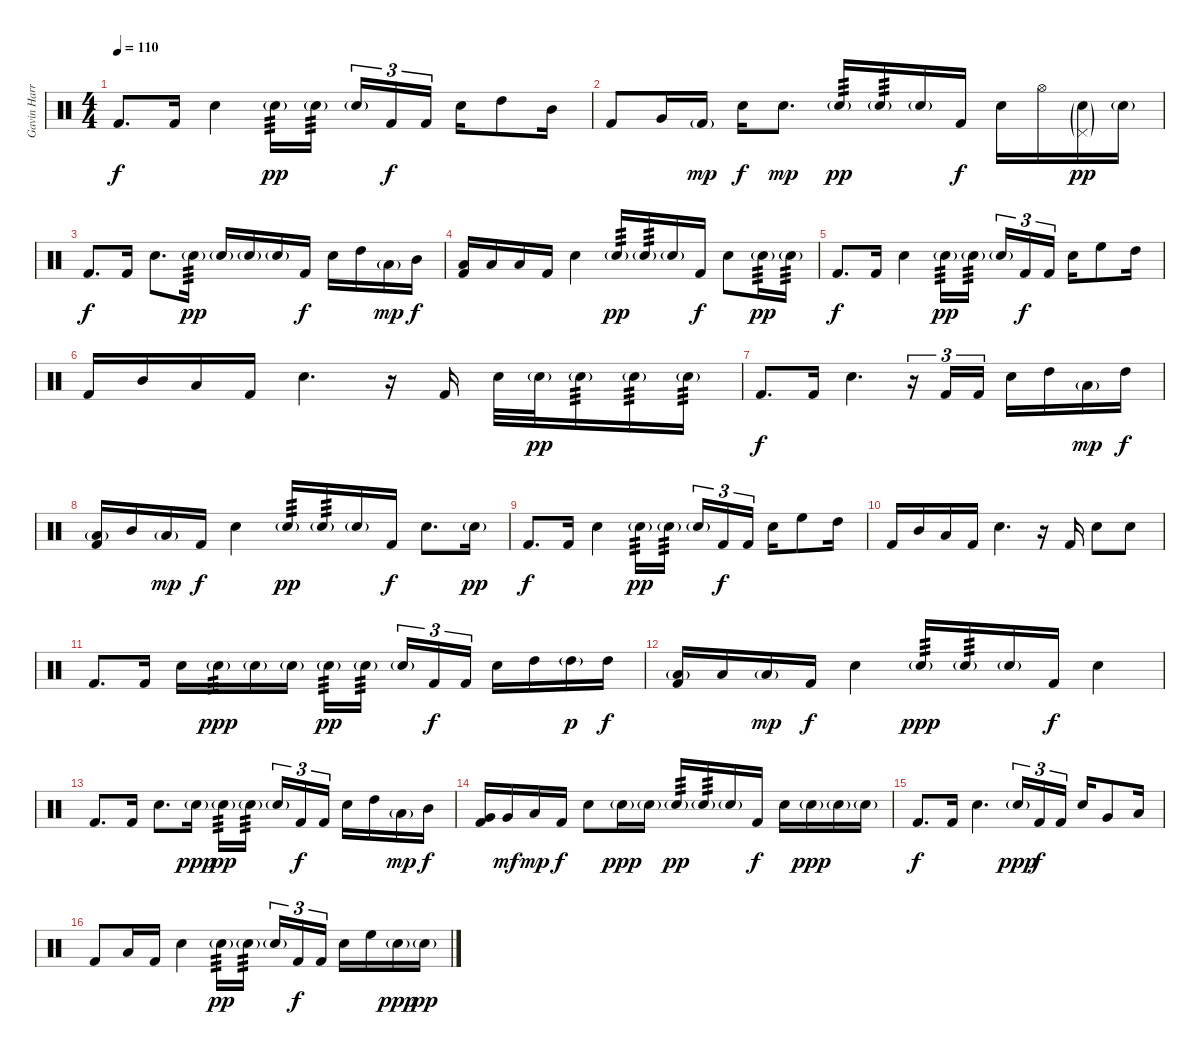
\track ("Gavin Harrison - Drums" "Gavin Harr") {instrument percussion}
\staff {score}
\articulation defaults
\ts (4 4)
\tempo 110
\clef neutral
\ks c "Kick (hit) 2".8{d dy f} "Kick (hit) 2".16 "Electric Snare (hit)".4 "Electric Snare (hit)"{g}.16{tp 3 dy pp} "Electric Snare (hit)"{g}.16{tp 3} "Electric Snare (hit)"{g}.16{tu (3 2)} "Kick (hit) 2".16{tu (3 2) dy f} "Kick (hit) 2".16{tu (3 2)} "Electric Snare (hit)".16 "High Tom (hit)".8 "Mid Tom (hit)".16
|
"Kick (hit) 2".8 "Very Low Tom (hit)".16 "Kick (hit) 2"{g}.16{dy mp} "Electric Snare (hit)".16{dy f} "Electric Snare (hit)".8{d dy mp} "Electric Snare (hit)"{g}.16{tp 3 dy pp} "Electric Snare (hit)"{g}.16{tp 3} "Electric Snare (hit)"{g}.16 "Kick (hit) 2".16{dy f} "Electric Snare (hit)".16 "Hi-Hat (open)".16 ("Pedal Hi-Hat (hit)"{g} "Electric Snare (hit)"{g}).16{dy pp} "Electric Snare (hit)"{g}.16 |
"Kick (hit) 2".8{d dy f} "Kick (hit) 2".16 "Electric Snare (hit)".8{d} "Electric Snare (hit)"{g}.16{tp 3 dy pp} "Electric Snare (hit)"{g}.16 "Electric Snare (hit)"{g}.16 "Electric Snare (hit)"{g}.16 "Kick (hit) 2".16{dy f} "Electric Snare (hit)".16 "High Tom (hit)".16 "Low Floor Tom (hit)"{g}.16{dy mp} "Mid Tom (hit)".16{dy f} |
("Low Floor Tom (hit)" "Kick (hit) 2").16 "Low Tom (hit)".16 "Low Floor Tom (hit)".16 "Kick (hit) 2".16 "Electric Snare (hit)".4 "Electric Snare (hit)"{g}.16{tp 3 dy pp} "Electric Snare (hit)"{g}.16{tp 3} "Electric Snare (hit)"{g}.16 "Kick (hit) 2".16{dy f} "Electric Snare (hit)".8 "Electric Snare (hit)"{g}.16{tp 3 dy pp} "Electric Snare (hit)"{g}.16{tp 3} |
"Kick (hit) 2".8{d dy f} "Kick (hit) 2".16 "Electric Snare (hit)".4 "Electric Snare (hit)"{g}.16{tp 3 dy pp} "Electric Snare (hit)"{g}.16{tp 3} "Electric Snare (hit)"{g}.16{tu (3 2)} "Kick (hit) 2".16{tu (3 2) dy f} "Kick (hit) 2".16{tu (3 2)} "Electric Snare (hit)".16 "High Floor Tom (hit)".8 "High Tom (hit)".16 |
"Kick (hit) 2".16 "Mid Tom (hit)".16 "Low Floor Tom (hit)".16 "Kick (hit) 2".16 "Electric Snare (hit)".4{d} r.16 "Kick (hit) 2".16 "Electric Snare (hit)".32 "Electric Snare (hit)"{g}.32{dy pp} "Electric Snare (hit)"{g}.16{tp 3} "Electric Snare (hit)"{g}.16{tp 3} "Electric Snare (hit)"{g}.16{tp 3} |
"Kick (hit) 2".8{d dy f} "Kick (hit) 2".16 "Electric Snare (hit)".4{d} r.16{tu (3 2)} "Kick (hit) 2".16{tu (3 2)} "Kick (hit) 2".16{tu (3 2)} "Electric Snare (hit)".16 "High Tom (hit)".16 "Low Floor Tom (hit)"{g}.16{dy mp} "High Tom (hit)".16{dy f} |
("Low Floor Tom (hit)"{g} "Kick (hit) 2").16 "Mid Tom (hit)".16 "Low Floor Tom (hit)"{g}.16{dy mp} "Kick (hit) 2".16{dy f} "Electric Snare (hit)".4 "Electric Snare (hit)"{g}.16{tp 3 dy pp} "Electric Snare (hit)"{g}.16{tp 3} "Electric Snare (hit)"{g}.16 "Kick (hit) 2".16{dy f} "Electric Snare (hit)".8{d} "Electric Snare (hit)"{g}.16{dy pp} |
"Kick (hit) 2".8{d dy f} "Kick (hit) 2".16 "Electric Snare (hit)".4 "Electric Snare (hit)"{g}.16{tp 3 dy pp} "Electric Snare (hit)"{g}.16{tp 3} "Electric Snare (hit)"{g}.16{tu (3 2)} "Kick (hit) 2".16{tu (3 2) dy f} "Kick (hit) 2".16{tu (3 2)} "Electric Snare (hit)".16 "High Floor Tom (hit)".8 "High Tom (hit)".16 |
"Kick (hit) 2".16 "Mid Tom (hit)".16 "Low Floor Tom (hit)".16 "Kick (hit) 2".16 "Electric Snare (hit)".4{d} r.16 "Kick (hit) 2".16 "Electric Snare (hit)".8 "Electric Snare (hit)".8 |
"Kick (hit) 2".8{d} "Kick (hit) 2".16 "Electric Snare (hit)".16 "Electric Snare (hit)"{g}.16{tp 3 dy ppp} "Electric Snare (hit)"{g}.16 "Electric Snare (hit)"{g}.16 "Electric Snare (hit)"{g}.16{tp 3 dy pp} "Electric Snare (hit)"{g}.16{tp 3} "Electric Snare (hit)"{g}.16{tu (3 2)} "Kick (hit) 2".16{tu (3 2) dy f} "Kick (hit) 2".16{tu (3 2)} "Electric Snare (hit)".16 "High Tom (hit)".16 "High Tom (hit)"{g}.16{dy p} "High Tom (hit)".16{dy f} |
("Low Tom (hit)"{g} "Kick (hit) 2").16 "Low Tom (hit)".16 "Low Floor Tom (hit)"{g}.16{dy mp} "Kick (hit) 2".16{dy f} "Electric Snare (hit)".4 "Electric Snare (hit)"{g}.16{tp 3 dy ppp} "Electric Snare (hit)"{g}.16{tp 3} "Electric Snare (hit)"{g}.16 "Kick (hit) 2".16{dy f} "Electric Snare (hit)".4 |
"Kick (hit) 2".8{d} "Kick (hit) 2".16 "Electric Snare (hit)".8{d} "Electric Snare (hit)"{g}.16{dy ppp} "Electric Snare (hit)"{g}.16{tp 3 dy pp} "Electric Snare (hit)"{g}.16{tp 3} "Electric Snare (hit)"{g}.16{tu (3 2)} "Kick (hit) 2".16{tu (3 2) dy f} "Kick (hit) 2".16{tu (3 2)} "Electric Snare (hit)".16 "High Tom (hit)".16 "Low Floor Tom (hit)"{g}.16{dy mp} "Mid Tom (hit)".16{dy f} |
("Very Low Tom (hit)" "Kick (hit) 2").16 "Very Low Tom (hit)".16{dy mf} "Low Floor Tom (hit)".16{dy mp} "Kick (hit) 2".16{dy f} "Electric Snare (hit)".8 "Electric Snare (hit)"{g}.16{dy ppp} "Electric Snare (hit)"{g}.16 "Electric Snare (hit)"{g}.16{tp 3 dy pp} "Electric Snare (hit)"{g}.16{tp 3} "Electric Snare (hit)"{g}.16 "Kick (hit) 2".16{dy f} "Electric Snare (hit)".16 "Electric Snare (hit)"{g}.16{dy ppp} "Electric Snare (hit)"{g}.16 "Electric Snare (hit)"{g}.16 |
"Kick (hit) 2".8{d dy f} "Kick (hit) 2".16 "Electric Snare (hit)".4{d} "Electric Snare (hit)"{g}.16{tu (3 2) dy ppp} "Kick (hit) 2".16{tu (3 2) dy f} "Kick (hit) 2".16{tu (3 2)} "Electric Snare (hit)".16 "Very Low Tom (hit)".8 "Low Floor Tom (hit)".16 |
"Kick (hit) 2".8 "Low Floor Tom (hit)".16 "Kick (hit) 2".16 "Electric Snare (hit)".4 "Electric Snare (hit)"{g}.16{tp 3 dy pp} "Electric Snare (hit)"{g}.16{tp 3} "Electric Snare (hit)"{g}.16{tu (3 2)} "Kick (hit) 2".16{tu (3 2) dy f} "Kick (hit) 2".16{tu (3 2)} "Electric Snare (hit)".16 "High Floor Tom (hit)".16 "Electric Snare (hit)"{g}.16{dy ppp} "Electric Snare (hit)"{g}.16{dy pp}
